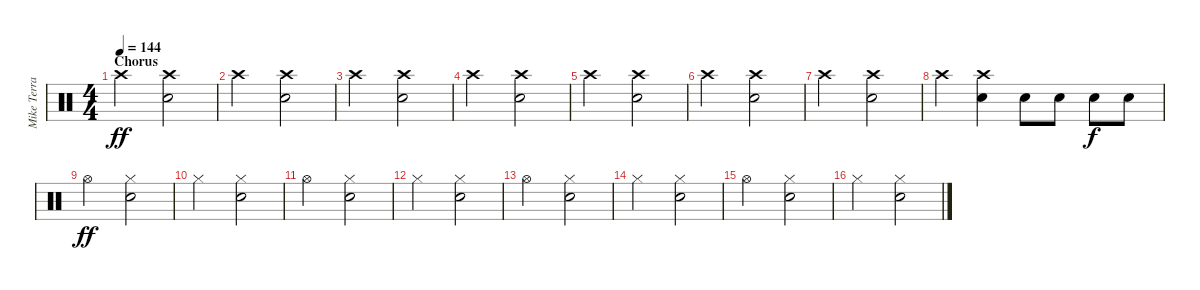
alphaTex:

\track ("Mike Terrana" "Mike Terra") {instrument percussion}
\staff {score}
\articulation defaults
\ts (4 4)
\section ("" "Chorus")
\tempo 144
\clef neutral
\ks c "Crash high (hit)".2{dy ff}
("Snare (hit) 2" "Crash high (hit)").2 |
"Crash high (hit)".2 ("Snare (hit) 2" "Crash high (hit)").2 |
"Crash high (hit)".2 ("Snare (hit) 2" "Crash high (hit)").2 |
"Crash high (hit)".2 ("Snare (hit) 2" "Crash high (hit)").2 |
"Crash high (hit)".2 ("Snare (hit) 2" "Crash high (hit)").2 |
"Crash high (hit)".2 ("Snare (hit) 2" "Crash high (hit)").2 |
"Crash high (hit)".2 ("Snare (hit) 2" "Crash high (hit)").2 |
"Crash high (hit)".4 ("Snare (hit) 2" "Crash high (hit)").4 "Snare (hit) 2".8 "Snare (hit) 2".8 "Snare (hit) 2".8{dy f} "Snare (hit) 2".8 |
"Hi-Hat (open)".2{dy ff} ("Snare (hit) 2" "Hi-Hat (closed)").2 |
"Hi-Hat (closed)".2 ("Snare (hit) 2" "Hi-Hat (closed)").2 |
"Hi-Hat (open)".2 ("Snare (hit) 2" "Hi-Hat (closed)").2 |
"Hi-Hat (closed)".2 ("Snare (hit) 2" "Hi-Hat (closed)").2 |
"Hi-Hat (open)".2 ("Snare (hit) 2" "Hi-Hat (closed)").2 |
"Hi-Hat (closed)".2 ("Snare (hit) 2" "Hi-Hat (closed)").2 |
"Hi-Hat (open)".2 ("Snare (hit) 2" "Hi-Hat (closed)").2 |
"Hi-Hat (closed)".2 ("Snare (hit) 2" "Hi-Hat (closed)").2
